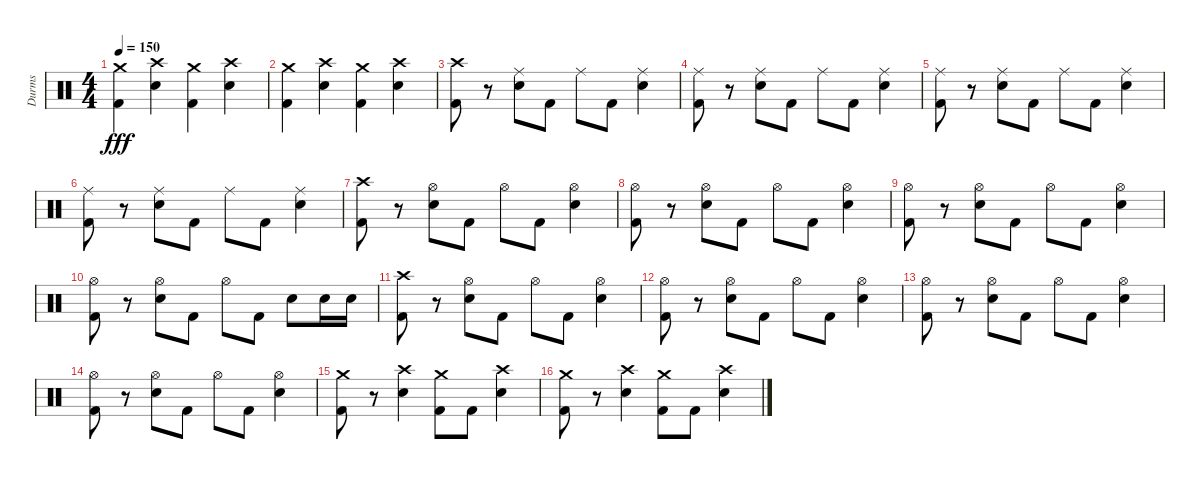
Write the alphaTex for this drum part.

\track ("Durms" "Durms") {instrument percussion}
\staff {score}
\articulation defaults
\ts (4 4)
\tempo 150
\clef neutral
\ks c
("Crash medium (hit)" "Kick (hit) 2").4{dy fff} ("Crash high (hit)" "Electric Snare (hit)").4 ("Crash medium (hit)" "Kick (hit) 2").4 ("Crash high (hit)" "Electric Snare (hit)").4 |
("Crash medium (hit)" "Kick (hit) 2").4 ("Crash high (hit)" "Electric Snare (hit)").4 ("Crash medium (hit)" "Kick (hit) 2").4 ("Crash high (hit)" "Electric Snare (hit)").4 |
("Crash high (hit)" "Kick (hit) 2").8 r.8 ("Ride (middle)" "Electric Snare (hit)").8 "Kick (hit) 2".8 "Ride (middle)".8 "Kick (hit) 2".8 ("Ride (middle)" "Electric Snare (hit)").4 |
("Ride (middle)" "Kick (hit) 2").8 r.8 ("Ride (middle)" "Electric Snare (hit)").8 "Kick (hit) 2".8 "Ride (middle)".8 "Kick (hit) 2".8 ("Ride (middle)" "Electric Snare (hit)").4 |
("Ride (middle)" "Kick (hit) 2").8 r.8 ("Ride (middle)" "Electric Snare (hit)").8 "Kick (hit) 2".8 "Ride (middle)".8 "Kick (hit) 2".8 ("Ride (middle)" "Electric Snare (hit)").4 |
("Ride (middle)" "Kick (hit) 2").8 r.8 ("Ride (middle)" "Electric Snare (hit)").8 "Kick (hit) 2".8 "Ride (middle)".8 "Kick (hit) 2".8 ("Ride (middle)" "Electric Snare (hit)").4 |
("Crash high (hit)" "Kick (hit) 2").8 r.8 ("Hi-Hat (open)" "Electric Snare (hit)").8 "Kick (hit) 2".8 "Hi-Hat (open)".8 "Kick (hit) 2".8 ("Hi-Hat (open)" "Electric Snare (hit)").4 |
("Hi-Hat (open)" "Kick (hit) 2").8 r.8 ("Hi-Hat (open)" "Electric Snare (hit)").8 "Kick (hit) 2".8 "Hi-Hat (open)".8 "Kick (hit) 2".8 ("Hi-Hat (open)" "Electric Snare (hit)").4 |
("Hi-Hat (open)" "Kick (hit) 2").8 r.8 ("Hi-Hat (open)" "Electric Snare (hit)").8 "Kick (hit) 2".8 "Hi-Hat (open)".8 "Kick (hit) 2".8 ("Hi-Hat (open)" "Electric Snare (hit)").4 |
("Hi-Hat (open)" "Kick (hit) 2").8 r.8 ("Hi-Hat (open)" "Electric Snare (hit)").8 "Kick (hit) 2".8 "Hi-Hat (open)".8 "Kick (hit) 2".8 "Electric Snare (hit)".8 "Electric Snare (hit)".16 "Electric Snare (hit)".16 |
("Crash high (hit)" "Kick (hit) 2").8 r.8 ("Hi-Hat (open)" "Electric Snare (hit)").8 "Kick (hit) 2".8 "Hi-Hat (open)".8 "Kick (hit) 2".8 ("Hi-Hat (open)" "Electric Snare (hit)").4 |
("Hi-Hat (open)" "Kick (hit) 2").8 r.8 ("Hi-Hat (open)" "Electric Snare (hit)").8 "Kick (hit) 2".8 "Hi-Hat (open)".8 "Kick (hit) 2".8 ("Hi-Hat (open)" "Electric Snare (hit)").4 |
("Hi-Hat (open)" "Kick (hit) 2").8 r.8 ("Hi-Hat (open)" "Electric Snare (hit)").8 "Kick (hit) 2".8 "Hi-Hat (open)".8 "Kick (hit) 2".8 ("Hi-Hat (open)" "Electric Snare (hit)").4 |
("Hi-Hat (open)" "Kick (hit) 2").8 r.8 ("Hi-Hat (open)" "Electric Snare (hit)").8 "Kick (hit) 2".8 "Hi-Hat (open)".8 "Kick (hit) 2".8 ("Hi-Hat (open)" "Electric Snare (hit)").4 |
("Crash medium (hit)" "Kick (hit) 2").8 r.8 ("Crash high (hit)" "Electric Snare (hit)").4 ("Crash medium (hit)" "Kick (hit) 2").8 "Kick (hit) 2".8 ("Crash high (hit)" "Electric Snare (hit)").4 |
("Crash medium (hit)" "Kick (hit) 2").8 r.8 ("Crash high (hit)" "Electric Snare (hit)").4 ("Crash medium (hit)" "Kick (hit) 2").8 "Kick (hit) 2".8 ("Crash high (hit)" "Electric Snare (hit)").4
